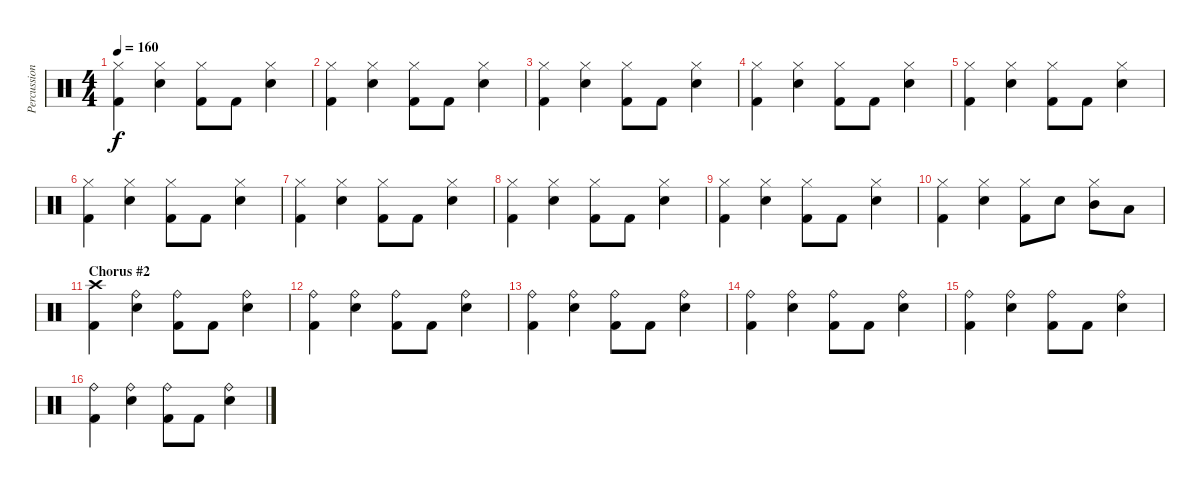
\track ("Percussion" "Percussion") {instrument percussion}
\staff {score}
\articulation defaults
\ts (4 4)
\tempo 160
\clef neutral
\ks c
("Hi-Hat (closed)" "Kick (hit) 2").4{dy f} ("Hi-Hat (closed)" "Electric Snare (hit)").4 ("Hi-Hat (closed)" "Kick (hit) 2").8 "Kick (hit) 2".8 ("Hi-Hat (closed)" "Electric Snare (hit)").4 |
("Hi-Hat (closed)" "Kick (hit) 2").4 ("Hi-Hat (closed)" "Electric Snare (hit)").4 ("Hi-Hat (closed)" "Kick (hit) 2").8 "Kick (hit) 2".8 ("Hi-Hat (closed)" "Electric Snare (hit)").4 |
("Hi-Hat (closed)" "Kick (hit) 2").4 ("Hi-Hat (closed)" "Electric Snare (hit)").4 ("Hi-Hat (closed)" "Kick (hit) 2").8 "Kick (hit) 2".8 ("Hi-Hat (closed)" "Electric Snare (hit)").4 |
("Hi-Hat (closed)" "Kick (hit) 2").4 ("Hi-Hat (closed)" "Electric Snare (hit)").4 ("Hi-Hat (closed)" "Kick (hit) 2").8 "Kick (hit) 2".8 ("Hi-Hat (closed)" "Electric Snare (hit)").4 |
("Hi-Hat (closed)" "Kick (hit) 2").4 ("Hi-Hat (closed)" "Electric Snare (hit)").4 ("Hi-Hat (closed)" "Kick (hit) 2").8 "Kick (hit) 2".8 ("Hi-Hat (closed)" "Electric Snare (hit)").4 |
("Hi-Hat (closed)" "Kick (hit) 2").4 ("Hi-Hat (closed)" "Electric Snare (hit)").4 ("Hi-Hat (closed)" "Kick (hit) 2").8 "Kick (hit) 2".8 ("Hi-Hat (closed)" "Electric Snare (hit)").4 |
("Hi-Hat (closed)" "Kick (hit) 2").4 ("Hi-Hat (closed)" "Electric Snare (hit)").4 ("Hi-Hat (closed)" "Kick (hit) 2").8 "Kick (hit) 2".8 ("Hi-Hat (closed)" "Electric Snare (hit)").4 |
("Hi-Hat (closed)" "Kick (hit) 2").4 ("Hi-Hat (closed)" "Electric Snare (hit)").4 ("Hi-Hat (closed)" "Kick (hit) 2").8 "Kick (hit) 2".8 ("Hi-Hat (closed)" "Electric Snare (hit)").4 |
("Hi-Hat (closed)" "Kick (hit) 2").4 ("Hi-Hat (closed)" "Electric Snare (hit)").4 ("Hi-Hat (closed)" "Kick (hit) 2").8 "Kick (hit) 2".8 ("Hi-Hat (closed)" "Electric Snare (hit)").4 |
("Hi-Hat (closed)" "Kick (hit) 2").4 ("Hi-Hat (closed)" "Electric Snare (hit)").4 ("Hi-Hat (closed)" "Kick (hit) 2").8 "Electric Snare (hit)".8 ("Hi-Hat (closed)" "Mid Tom (hit)").8 "Low Tom (hit)".8 |
\section ("" "Chorus #2")
("Crash high (hit)" "Kick (hit) 2").4 ("Ride (bell)" "Electric Snare (hit)").4 ("Ride (bell)" "Kick (hit) 2").8 "Kick (hit) 2".8 ("Ride (bell)" "Electric Snare (hit)").4 |
("Ride (bell)" "Kick (hit) 2").4 ("Ride (bell)" "Electric Snare (hit)").4 ("Ride (bell)" "Kick (hit) 2").8 "Kick (hit) 2".8 ("Ride (bell)" "Electric Snare (hit)").4 |
("Ride (bell)" "Kick (hit) 2").4 ("Ride (bell)" "Electric Snare (hit)").4 ("Ride (bell)" "Kick (hit) 2").8 "Kick (hit) 2".8 ("Ride (bell)" "Electric Snare (hit)").4 |
("Ride (bell)" "Kick (hit) 2").4 ("Ride (bell)" "Electric Snare (hit)").4 ("Ride (bell)" "Kick (hit) 2").8 "Kick (hit) 2".8 ("Ride (bell)" "Electric Snare (hit)").4 |
("Ride (bell)" "Kick (hit) 2").4 ("Ride (bell)" "Electric Snare (hit)").4 ("Ride (bell)" "Kick (hit) 2").8 "Kick (hit) 2".8 ("Ride (bell)" "Electric Snare (hit)").4 |
("Ride (bell)" "Kick (hit) 2").4 ("Ride (bell)" "Electric Snare (hit)").4 ("Ride (bell)" "Kick (hit) 2").8 "Kick (hit) 2".8 ("Ride (bell)" "Electric Snare (hit)").4
